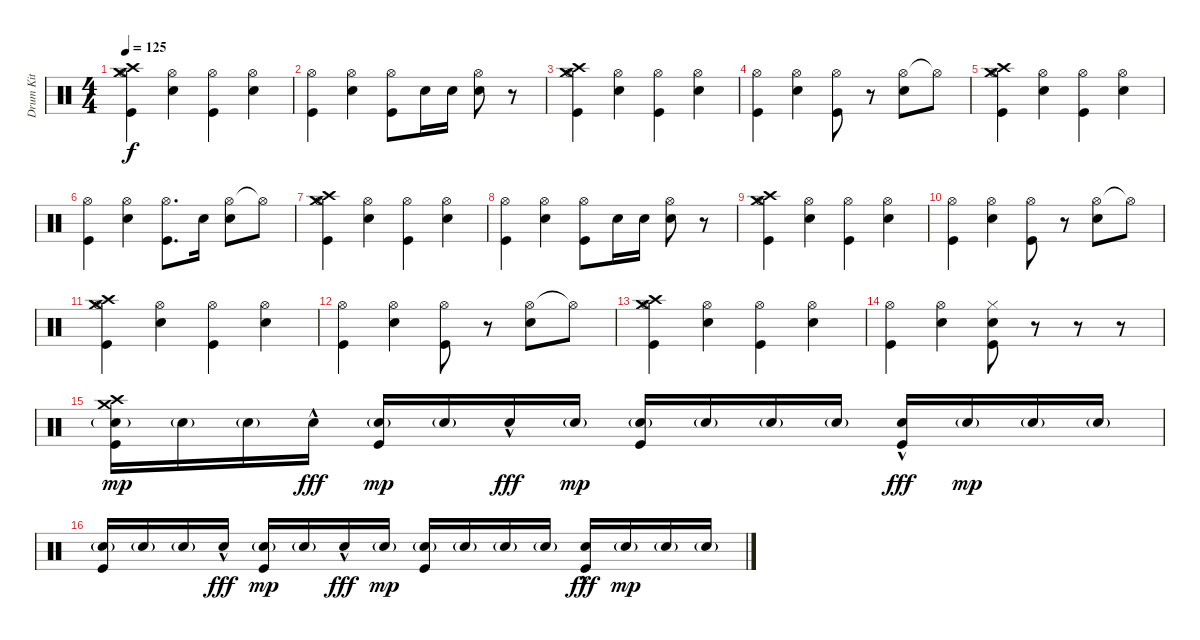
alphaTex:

\track ("Drum Kit" "Drum Kit") {instrument percussion}
\staff {score}
\articulation defaults
\ts (4 4)
\tempo 125
\clef neutral
\ks c
("Crash high (hit)" "Hi-Hat (open)" "Crash medium (hit)" "Kick (hit)").4{dy f} ("Hi-Hat (open)" "Electric Snare (hit)").4 ("Hi-Hat (open)" "Kick (hit)").4 ("Hi-Hat (open)" "Electric Snare (hit)").4 |
("Hi-Hat (open)" "Kick (hit)").4 ("Hi-Hat (open)" "Electric Snare (hit)").4 ("Hi-Hat (open)" "Kick (hit)").8 "Electric Snare (hit)".16 "Electric Snare (hit)".16 ("Hi-Hat (open)" "Electric Snare (hit)").8 r.8 |
("Crash high (hit)" "Hi-Hat (open)" "Crash medium (hit)" "Kick (hit)").4 ("Hi-Hat (open)" "Electric Snare (hit)").4 ("Hi-Hat (open)" "Kick (hit)").4 ("Hi-Hat (open)" "Electric Snare (hit)").4 |
("Hi-Hat (open)" "Kick (hit)").4 ("Hi-Hat (open)" "Electric Snare (hit)").4 ("Hi-Hat (open)" "Kick (hit)").8 r.8 ("Hi-Hat (open)" "Electric Snare (hit)").8 "Hi-Hat (open)"{t}.8 |
("Crash high (hit)" "Hi-Hat (open)" "Crash medium (hit)" "Kick (hit)").4 ("Hi-Hat (open)" "Electric Snare (hit)").4 ("Hi-Hat (open)" "Kick (hit)").4 ("Hi-Hat (open)" "Electric Snare (hit)").4 |
("Hi-Hat (open)" "Kick (hit)").4 ("Hi-Hat (open)" "Electric Snare (hit)").4 ("Hi-Hat (open)" "Kick (hit)").8{d} "Electric Snare (hit)".16 ("Hi-Hat (open)" "Electric Snare (hit)").8 "Hi-Hat (open)"{t}.8 |
("Crash high (hit)" "Hi-Hat (open)" "Crash medium (hit)" "Kick (hit)").4 ("Hi-Hat (open)" "Electric Snare (hit)").4 ("Hi-Hat (open)" "Kick (hit)").4 ("Hi-Hat (open)" "Electric Snare (hit)").4 |
("Hi-Hat (open)" "Kick (hit)").4 ("Hi-Hat (open)" "Electric Snare (hit)").4 ("Hi-Hat (open)" "Kick (hit)").8 "Electric Snare (hit)".16 "Electric Snare (hit)".16 ("Hi-Hat (open)" "Electric Snare (hit)").8 r.8 |
("Crash high (hit)" "Hi-Hat (open)" "Crash medium (hit)" "Kick (hit)").4 ("Hi-Hat (open)" "Electric Snare (hit)").4 ("Hi-Hat (open)" "Kick (hit)").4 ("Hi-Hat (open)" "Electric Snare (hit)").4 |
("Hi-Hat (open)" "Kick (hit)").4 ("Hi-Hat (open)" "Electric Snare (hit)").4 ("Hi-Hat (open)" "Kick (hit)").8 r.8 ("Hi-Hat (open)" "Electric Snare (hit)").8 "Hi-Hat (open)"{t}.8 |
("Crash high (hit)" "Hi-Hat (open)" "Crash medium (hit)" "Kick (hit)").4 ("Hi-Hat (open)" "Electric Snare (hit)").4 ("Hi-Hat (open)" "Kick (hit)").4 ("Hi-Hat (open)" "Electric Snare (hit)").4 |
("Hi-Hat (open)" "Kick (hit)").4 ("Hi-Hat (open)" "Electric Snare (hit)").4 ("Hi-Hat (open)" "Kick (hit)").8 r.8 ("Hi-Hat (open)" "Electric Snare (hit)").8 "Hi-Hat (open)"{t}.8 |
("Crash high (hit)" "Hi-Hat (open)" "Crash medium (hit)" "Kick (hit)").4 ("Hi-Hat (open)" "Electric Snare (hit)").4 ("Hi-Hat (open)" "Kick (hit)").4 ("Hi-Hat (open)" "Electric Snare (hit)").4 |
("Hi-Hat (open)" "Kick (hit)").4 ("Hi-Hat (open)" "Electric Snare (hit)").4 ("Hi-Hat (closed)" "Electric Snare (hit)" "Kick (hit)").8 r.8 r.8 r.8 |
("Crash high (hit)" "Crash medium (hit)" "Electric Snare (hit)"{g} "Kick (hit)").16{dy mp} "Electric Snare (hit)"{g}.16 "Electric Snare (hit)"{g}.16 "Electric Snare (hit)"{hac}.16{dy fff} ("Electric Snare (hit)"{g} "Kick (hit)").16{dy mp} "Electric Snare (hit)"{g}.16 "Electric Snare (hit)"{hac}.16{dy fff} "Electric Snare (hit)"{g}.16{dy mp} ("Electric Snare (hit)"{g} "Kick (hit)").16 "Electric Snare (hit)"{g}.16 "Electric Snare (hit)"{g}.16 "Electric Snare (hit)"{g}.16 ("Electric Snare (hit)"{hac} "Kick (hit)").16{dy fff} "Electric Snare (hit)"{g}.16{dy mp} "Electric Snare (hit)"{g}.16 "Electric Snare (hit)"{g}.16 |
("Electric Snare (hit)"{g} "Kick (hit)").16 "Electric Snare (hit)"{g}.16 "Electric Snare (hit)"{g}.16 "Electric Snare (hit)"{hac}.16{dy fff} ("Electric Snare (hit)"{g} "Kick (hit)").16{dy mp} "Electric Snare (hit)"{g}.16 "Electric Snare (hit)"{hac}.16{dy fff} "Electric Snare (hit)"{g}.16{dy mp} ("Electric Snare (hit)"{g} "Kick (hit)").16 "Electric Snare (hit)"{g}.16 "Electric Snare (hit)"{g}.16 "Electric Snare (hit)"{g}.16 ("Electric Snare (hit)"{hac} "Kick (hit)").16{dy fff} "Electric Snare (hit)"{g}.16{dy mp} "Electric Snare (hit)"{g}.16 "Electric Snare (hit)"{g}.16
